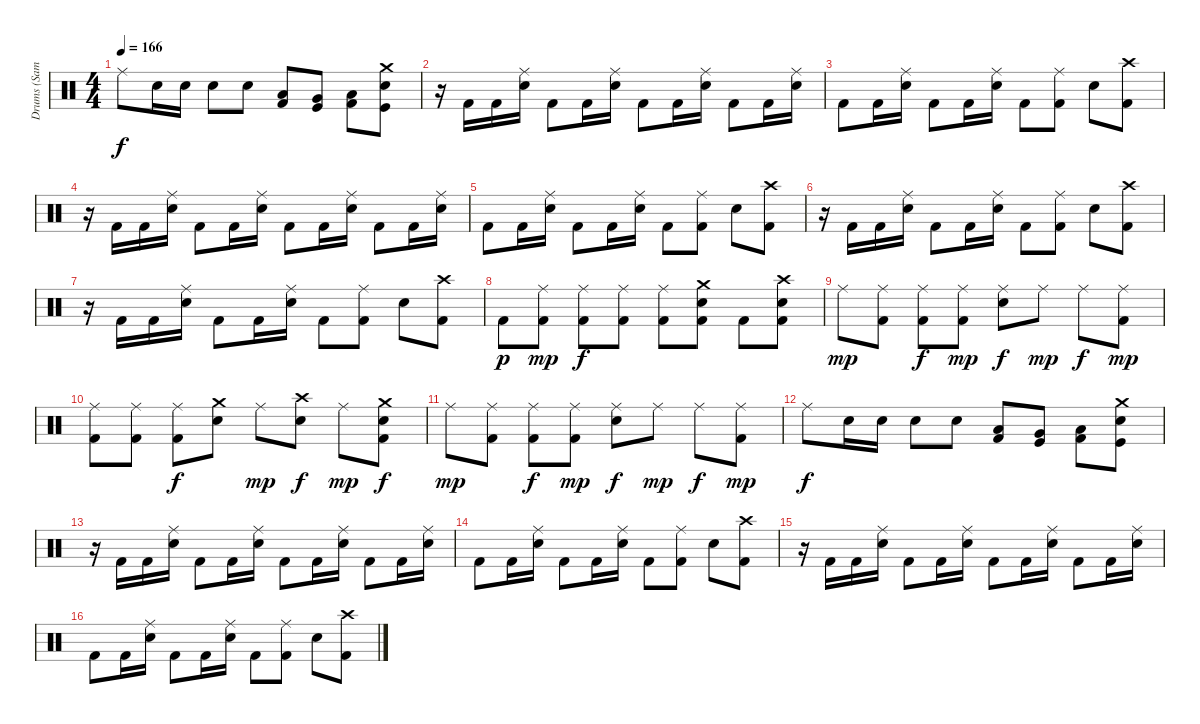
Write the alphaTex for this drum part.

\track ("Drums (Samuelson)" "Drums (Sam") {instrument percussion}
\staff
\articulation defaults
\ts (4 4)
\tempo 166
\clef neutral
\ks c "Ride (middle)".8{dy f} "Electric Snare (hit)".16 "Electric Snare (hit)".16 "Electric Snare (hit)".8 "Electric Snare (hit)".8
("Low Tom (hit)" "Kick (hit) 2").8 ("Very Low Tom (hit)" "Kick (hit)").8 ("Low Floor Tom (hit)" "Kick (hit) 2").8 ("Crash medium (hit)" "Electric Snare (hit)" "Kick (hit)").8 |
r.16 "Kick (hit) 2".16 "Kick (hit) 2".16 ("Ride (middle)" "Electric Snare (hit)").16 "Kick (hit) 2".8 "Kick (hit) 2".16 ("Ride (middle)" "Electric Snare (hit)").16 "Kick (hit) 2".8 "Kick (hit) 2".16 ("Ride (middle)" "Electric Snare (hit)").16 "Kick (hit) 2".8 "Kick (hit) 2".16 ("Ride (middle)" "Electric Snare (hit)").16 |
"Kick (hit) 2".8 "Kick (hit) 2".16 ("Ride (middle)" "Electric Snare (hit)").16 "Kick (hit) 2".8 "Kick (hit) 2".16 ("Ride (middle)" "Electric Snare (hit)").16 "Kick (hit) 2".8 ("Ride (middle)" "Kick (hit) 2").8 "Electric Snare (hit)".8 ("Crash high (hit)" "Kick (hit) 2").8 |
r.16 "Kick (hit) 2".16 "Kick (hit) 2".16 ("Ride (middle)" "Electric Snare (hit)").16 "Kick (hit) 2".8 "Kick (hit) 2".16 ("Ride (middle)" "Electric Snare (hit)").16 "Kick (hit) 2".8 "Kick (hit) 2".16 ("Ride (middle)" "Electric Snare (hit)").16 "Kick (hit) 2".8 "Kick (hit) 2".16 ("Ride (middle)" "Electric Snare (hit)").16 |
"Kick (hit) 2".8 "Kick (hit) 2".16 ("Ride (middle)" "Electric Snare (hit)").16 "Kick (hit) 2".8 "Kick (hit) 2".16 ("Ride (middle)" "Electric Snare (hit)").16 "Kick (hit) 2".8 ("Ride (middle)" "Kick (hit) 2").8 "Electric Snare (hit)".8 ("Crash high (hit)" "Kick (hit) 2").8 |
r.16 "Kick (hit) 2".16 "Kick (hit) 2".16 ("Ride (middle)" "Electric Snare (hit)").16 "Kick (hit) 2".8 "Kick (hit) 2".16 ("Ride (middle)" "Electric Snare (hit)").16 "Kick (hit) 2".8 ("Ride (middle)" "Kick (hit) 2").8 "Electric Snare (hit)".8 ("Crash high (hit)" "Kick (hit) 2").8 |
r.16 "Kick (hit) 2".16 "Kick (hit) 2".16 ("Ride (middle)" "Electric Snare (hit)").16 "Kick (hit) 2".8 "Kick (hit) 2".16 ("Ride (middle)" "Electric Snare (hit)").16 "Kick (hit) 2".8 ("Ride (middle)" "Kick (hit) 2").8 "Electric Snare (hit)".8 ("Crash high (hit)" "Kick (hit) 2").8 |
"Kick (hit) 2".8{dy p} ("Ride (middle)" "Kick (hit) 2").8{dy mp} ("Ride (middle)" "Kick (hit) 2").8{dy f} ("Ride (middle)" "Kick (hit) 2").8 ("Ride (middle)" "Kick (hit) 2").8 ("Crash medium (hit)" "Electric Snare (hit)" "Kick (hit) 2").8 "Kick (hit) 2".8 ("Crash high (hit)" "Electric Snare (hit)" "Kick (hit) 2").8 |
"Ride (middle)".8{dy mp} ("Ride (middle)" "Kick (hit) 2").8 ("Ride (middle)" "Kick (hit) 2").8{dy f} ("Ride (middle)" "Kick (hit) 2").8{dy mp} ("Ride (middle)" "Electric Snare (hit)").8{dy f} "Ride (middle)".8{dy mp} "Ride (middle)".8{dy f} ("Ride (middle)" "Kick (hit) 2").8{dy mp} |
("Ride (middle)" "Kick (hit) 2").8 ("Ride (middle)" "Kick (hit) 2").8 ("Ride (middle)" "Kick (hit) 2").8{dy f} ("Crash medium (hit)" "Electric Snare (hit)").8 "Ride (middle)".8{dy mp} ("Crash high (hit)" "Electric Snare (hit)").8{dy f} "Ride (middle)".8{dy mp} ("Crash medium (hit)" "Electric Snare (hit)" "Kick (hit) 2").8{dy f} |
"Ride (middle)".8{dy mp} ("Ride (middle)" "Kick (hit) 2").8 ("Ride (middle)" "Kick (hit) 2").8{dy f} ("Ride (middle)" "Kick (hit) 2").8{dy mp} ("Ride (middle)" "Electric Snare (hit)").8{dy f} "Ride (middle)".8{dy mp} "Ride (middle)".8{dy f} ("Ride (middle)" "Kick (hit) 2").8{dy mp} |
"Ride (middle)".8{dy f} "Electric Snare (hit)".16 "Electric Snare (hit)".16 "Electric Snare (hit)".8 "Electric Snare (hit)".8 ("Low Tom (hit)" "Kick (hit) 2").8 ("Very Low Tom (hit)" "Kick (hit)").8 ("Low Floor Tom (hit)" "Kick (hit) 2").8 ("Crash medium (hit)" "Electric Snare (hit)" "Kick (hit)").8 |
r.16 "Kick (hit) 2".16 "Kick (hit) 2".16 ("Ride (middle)" "Electric Snare (hit)").16 "Kick (hit) 2".8 "Kick (hit) 2".16 ("Ride (middle)" "Electric Snare (hit)").16 "Kick (hit) 2".8 "Kick (hit) 2".16 ("Ride (middle)" "Electric Snare (hit)").16 "Kick (hit) 2".8 "Kick (hit) 2".16 ("Ride (middle)" "Electric Snare (hit)").16 |
"Kick (hit) 2".8 "Kick (hit) 2".16 ("Ride (middle)" "Electric Snare (hit)").16 "Kick (hit) 2".8 "Kick (hit) 2".16 ("Ride (middle)" "Electric Snare (hit)").16 "Kick (hit) 2".8 ("Ride (middle)" "Kick (hit) 2").8 "Electric Snare (hit)".8 ("Crash high (hit)" "Kick (hit) 2").8 |
r.16 "Kick (hit) 2".16 "Kick (hit) 2".16 ("Ride (middle)" "Electric Snare (hit)").16 "Kick (hit) 2".8 "Kick (hit) 2".16 ("Ride (middle)" "Electric Snare (hit)").16 "Kick (hit) 2".8 "Kick (hit) 2".16 ("Ride (middle)" "Electric Snare (hit)").16 "Kick (hit) 2".8 "Kick (hit) 2".16 ("Ride (middle)" "Electric Snare (hit)").16 |
"Kick (hit) 2".8 "Kick (hit) 2".16 ("Ride (middle)" "Electric Snare (hit)").16 "Kick (hit) 2".8 "Kick (hit) 2".16 ("Ride (middle)" "Electric Snare (hit)").16 "Kick (hit) 2".8 ("Ride (middle)" "Kick (hit) 2").8 "Electric Snare (hit)".8 ("Crash high (hit)" "Kick (hit) 2").8
